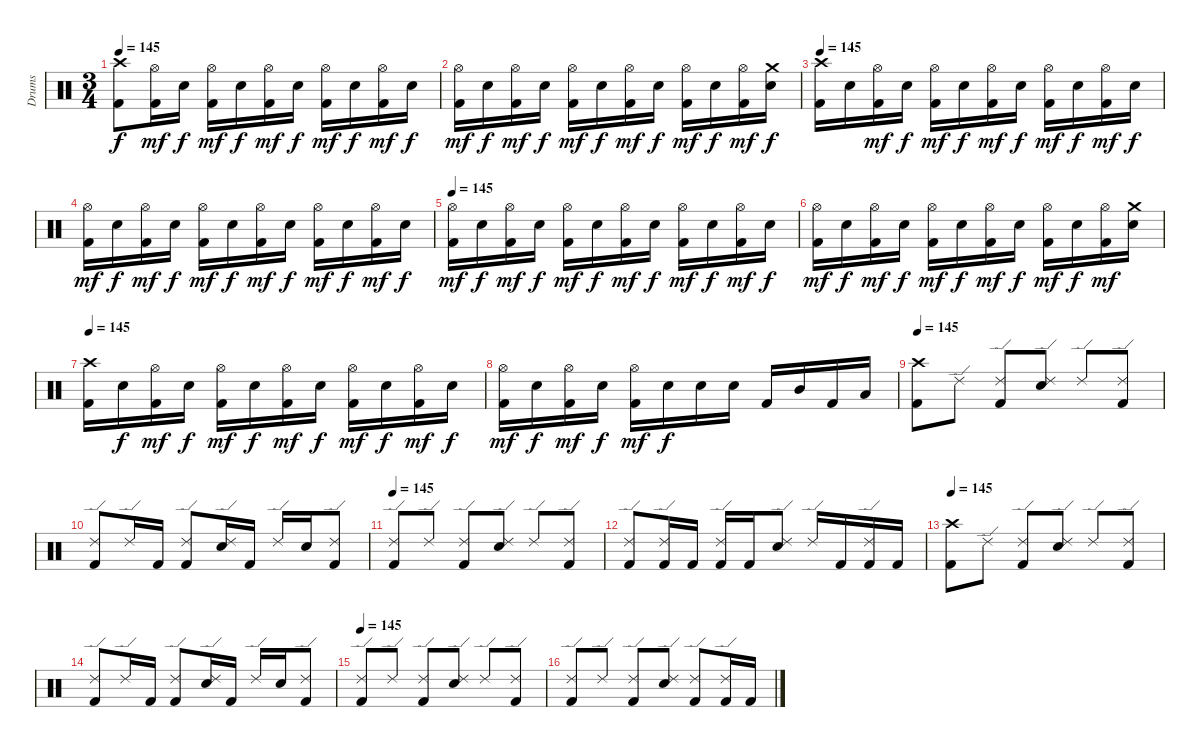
\track ("Drums" "Drums") {instrument percussion}
\staff {score}
\articulation defaults
\ts (3 4)
\tempo 145
\clef neutral
\ks c
("Crash high (hit)" "Kick (hit) 2").8{dy f} ("Hi-Hat (open)" "Kick (hit) 2").16{dy mf} "Electric Snare (hit)".16{dy f} ("Hi-Hat (open)" "Kick (hit) 2").16{dy mf} "Electric Snare (hit)".16{dy f} ("Hi-Hat (open)" "Kick (hit) 2").16{dy mf} "Electric Snare (hit)".16{dy f} ("Hi-Hat (open)" "Kick (hit) 2").16{dy mf} "Electric Snare (hit)".16{dy f} ("Hi-Hat (open)" "Kick (hit) 2").16{dy mf} "Electric Snare (hit)".16{dy f} |
("Hi-Hat (open)" "Kick (hit) 2").16{dy mf} "Electric Snare (hit)".16{dy f} ("Hi-Hat (open)" "Kick (hit) 2").16{dy mf} "Electric Snare (hit)".16{dy f} ("Hi-Hat (open)" "Kick (hit) 2").16{dy mf} "Electric Snare (hit)".16{dy f} ("Hi-Hat (open)" "Kick (hit) 2").16{dy mf} "Electric Snare (hit)".16{dy f} ("Hi-Hat (open)" "Kick (hit) 2").16{dy mf} "Electric Snare (hit)".16{dy f} ("Hi-Hat (open)" "Kick (hit) 2").16{dy mf} ("Crash medium (hit)" "Electric Snare (hit)").16{dy f} |
\tempo 145
("Crash high (hit)" "Kick (hit) 2").16 "Electric Snare (hit)".16 ("Hi-Hat (open)" "Kick (hit) 2").16{dy mf} "Electric Snare (hit)".16{dy f} ("Hi-Hat (open)" "Kick (hit) 2").16{dy mf} "Electric Snare (hit)".16{dy f} ("Hi-Hat (open)" "Kick (hit) 2").16{dy mf} "Electric Snare (hit)".16{dy f} ("Hi-Hat (open)" "Kick (hit) 2").16{dy mf} "Electric Snare (hit)".16{dy f} ("Hi-Hat (open)" "Kick (hit) 2").16{dy mf} "Electric Snare (hit)".16{dy f} |
("Hi-Hat (open)" "Kick (hit) 2").16{dy mf} "Electric Snare (hit)".16{dy f} ("Hi-Hat (open)" "Kick (hit) 2").16{dy mf} "Electric Snare (hit)".16{dy f} ("Hi-Hat (open)" "Kick (hit) 2").16{dy mf} "Electric Snare (hit)".16{dy f} ("Hi-Hat (open)" "Kick (hit) 2").16{dy mf} "Electric Snare (hit)".16{dy f} ("Hi-Hat (open)" "Kick (hit) 2").16{dy mf} "Electric Snare (hit)".16{dy f} ("Hi-Hat (open)" "Kick (hit) 2").16{dy mf} "Electric Snare (hit)".16{dy f} |
\tempo 145
("Hi-Hat (open)" "Kick (hit) 2").16{dy mf} "Electric Snare (hit)".16{dy f} ("Hi-Hat (open)" "Kick (hit) 2").16{dy mf} "Electric Snare (hit)".16{dy f} ("Hi-Hat (open)" "Kick (hit) 2").16{dy mf} "Electric Snare (hit)".16{dy f} ("Hi-Hat (open)" "Kick (hit) 2").16{dy mf} "Electric Snare (hit)".16{dy f} ("Hi-Hat (open)" "Kick (hit) 2").16{dy mf} "Electric Snare (hit)".16{dy f} ("Hi-Hat (open)" "Kick (hit) 2").16{dy mf} "Electric Snare (hit)".16{dy f} |
("Hi-Hat (open)" "Kick (hit) 2").16{dy mf} "Electric Snare (hit)".16{dy f} ("Hi-Hat (open)" "Kick (hit) 2").16{dy mf} "Electric Snare (hit)".16{dy f} ("Hi-Hat (open)" "Kick (hit) 2").16{dy mf} "Electric Snare (hit)".16{dy f} ("Hi-Hat (open)" "Kick (hit) 2").16{dy mf} "Electric Snare (hit)".16{dy f} ("Hi-Hat (open)" "Kick (hit) 2").16{dy mf} "Electric Snare (hit)".16{dy f} ("Hi-Hat (open)" "Kick (hit) 2").16{dy mf} ("Crash medium (hit)" "Electric Snare (hit)").16 |
\tempo 145
("Crash high (hit)" "Kick (hit) 2").16 "Electric Snare (hit)".16{dy f} ("Hi-Hat (open)" "Kick (hit) 2").16{dy mf} "Electric Snare (hit)".16{dy f} ("Hi-Hat (open)" "Kick (hit) 2").16{dy mf} "Electric Snare (hit)".16{dy f} ("Hi-Hat (open)" "Kick (hit) 2").16{dy mf} "Electric Snare (hit)".16{dy f} ("Hi-Hat (open)" "Kick (hit) 2").16{dy mf} "Electric Snare (hit)".16{dy f} ("Hi-Hat (open)" "Kick (hit) 2").16{dy mf} "Electric Snare (hit)".16{dy f} |
("Hi-Hat (open)" "Kick (hit) 2").16{dy mf} "Electric Snare (hit)".16{dy f} ("Hi-Hat (open)" "Kick (hit) 2").16{dy mf} "Electric Snare (hit)".16{dy f} ("Hi-Hat (open)" "Kick (hit) 2").16{dy mf} "Electric Snare (hit)".16{dy f} "Electric Snare (hit)".16 "Electric Snare (hit)".16 "Kick (hit) 2".16 "Mid Tom (hit)".16 "Kick (hit) 2".16 "Low Tom (hit)".16 |
\tempo 145
("Crash high (hit)" "Kick (hit) 2").8 "Ride (edge) 2".8 ("Ride (edge) 2" "Kick (hit) 2").8 ("Ride (edge) 2" "Electric Snare (hit)").8 "Ride (edge) 2".8 ("Ride (edge) 2" "Kick (hit) 2").8 |
("Ride (edge) 2" "Kick (hit) 2").8 "Ride (edge) 2".16 "Kick (hit) 2".16 ("Ride (edge) 2" "Kick (hit) 2").8 ("Ride (edge) 2" "Electric Snare (hit)").16 "Kick (hit) 2".16 "Ride (edge) 2".16 "Electric Snare (hit)".16 ("Ride (edge) 2" "Kick (hit) 2").8 |
\tempo 145
("Ride (edge) 2" "Kick (hit) 2").8 "Ride (edge) 2".8 ("Ride (edge) 2" "Kick (hit) 2").8 ("Ride (edge) 2" "Electric Snare (hit)").8 "Ride (edge) 2".8 ("Ride (edge) 2" "Kick (hit) 2").8 |
("Ride (edge) 2" "Kick (hit) 2").8 ("Ride (edge) 2" "Kick (hit) 2").16 "Kick (hit) 2".16 ("Ride (edge) 2" "Kick (hit) 2").16 "Kick (hit) 2".16 ("Ride (edge) 2" "Electric Snare (hit)").8 "Ride (edge) 2".16 "Kick (hit) 2".16 ("Ride (edge) 2" "Kick (hit) 2").16 "Kick (hit) 2".16 |
\tempo 145
("Crash high (hit)" "Kick (hit) 2").8 "Ride (edge) 2".8 ("Ride (edge) 2" "Kick (hit) 2").8 ("Ride (edge) 2" "Electric Snare (hit)").8 "Ride (edge) 2".8 ("Ride (edge) 2" "Kick (hit) 2").8 |
("Ride (edge) 2" "Kick (hit) 2").8 "Ride (edge) 2".16 "Kick (hit) 2".16 ("Ride (edge) 2" "Kick (hit) 2").8 ("Ride (edge) 2" "Electric Snare (hit)").16 "Kick (hit) 2".16 "Ride (edge) 2".16 "Electric Snare (hit)".16 ("Ride (edge) 2" "Kick (hit) 2").8 |
\tempo 145
("Ride (edge) 2" "Kick (hit) 2").8 "Ride (edge) 2".8 ("Ride (edge) 2" "Kick (hit) 2").8 ("Ride (edge) 2" "Electric Snare (hit)").8 "Ride (edge) 2".8 ("Ride (edge) 2" "Kick (hit) 2").8 |
("Ride (edge) 2" "Kick (hit) 2").8 "Ride (edge) 2".8 ("Ride (edge) 2" "Kick (hit) 2").8 ("Ride (edge) 2" "Electric Snare (hit)").8 ("Ride (edge) 2" "Kick (hit) 2").8 ("Ride (edge) 2" "Kick (hit) 2").16 "Kick (hit) 2".16
